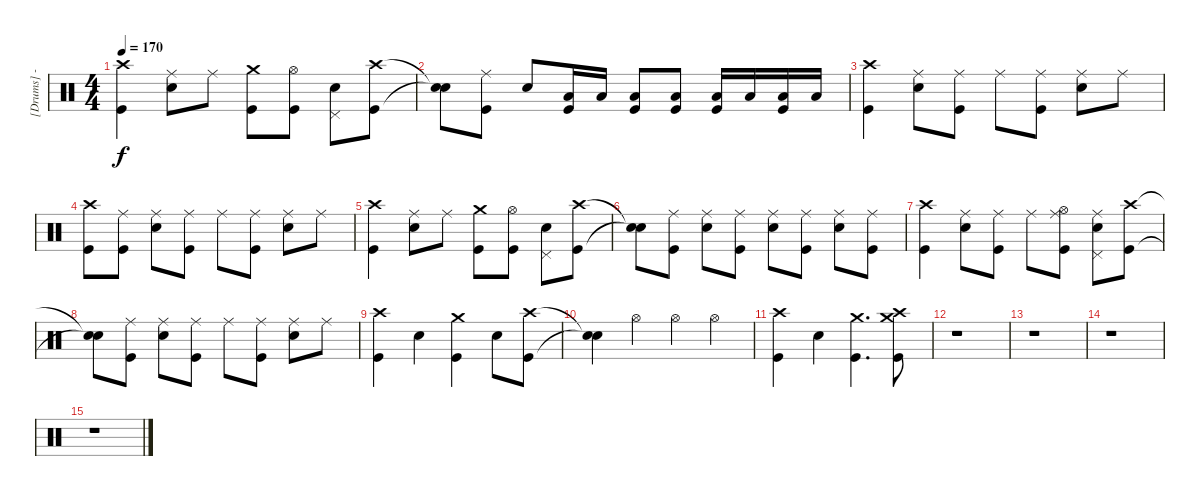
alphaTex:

\track ("[Drums] - Trè Cool" "[Drums] - ") {instrument percussion}
\staff {score}
\articulation defaults
\ts (4 4)
\tempo 170
\clef neutral
\ks c
("Kick (hit)" "Crash high (hit)").4{dy f} ("Snare (hit) 2" "Ride (middle)").8 "Ride (middle)".8 ("Kick (hit)" "Crash medium (hit)").8 ("Kick (hit)" "Hi-Hat (open)").8 ("Snare (hit) 2" "Pedal Hi-Hat (hit)").8 ("Kick (hit)" "Crash high (hit)").8 |
("Snare (hit)"{t} "Snare (hit)"{t}).8 ("Kick (hit)" "Ride (middle)").8 "Snare (hit) 2".8 ("Low Tom (hit)" "Kick (hit)").16 "Low Tom (hit)".16 ("Low Tom (hit)" "Kick (hit)").8 ("Low Tom (hit)" "Kick (hit)").8 ("Low Floor Tom (hit)" "Kick (hit)").16 "Low Floor Tom (hit)".16 ("Low Floor Tom (hit)" "Kick (hit)").16 "Low Floor Tom (hit)".16 |
("Kick (hit)" "Crash high (hit)").4 ("Snare (hit) 2" "Ride (middle)").8 ("Kick (hit)" "Ride (middle)").8 "Ride (middle)".8 ("Kick (hit)" "Ride (middle)").8 ("Snare (hit) 2" "Ride (middle)").8 "Ride (middle)".8 |
("Kick (hit)" "Crash high (hit)").8 ("Kick (hit)" "Ride (middle)").8 ("Snare (hit) 2" "Ride (middle)").8 ("Kick (hit)" "Ride (middle)").8 "Ride (middle)".8 ("Kick (hit)" "Ride (middle)").8 ("Snare (hit) 2" "Ride (middle)").8 "Ride (middle)".8 |
("Kick (hit)" "Crash high (hit)").4 ("Snare (hit) 2" "Ride (middle)").8 "Ride (middle)".8 ("Kick (hit)" "Crash medium (hit)").8 ("Kick (hit)" "Hi-Hat (open)").8 ("Snare (hit) 2" "Pedal Hi-Hat (hit)").8 ("Kick (hit)" "Crash high (hit)").8 |
("Snare (hit)"{t} "Snare (hit)"{t}).8 ("Kick (hit)" "Ride (middle)").8 ("Snare (hit) 2" "Ride (middle)").8 ("Kick (hit)" "Ride (middle)").8 ("Snare (hit) 2" "Ride (middle)").8 ("Kick (hit)" "Ride (middle)").8 ("Snare (hit) 2" "Ride (middle)").8 ("Kick (hit)" "Ride (middle)").8 |
("Kick (hit)" "Crash high (hit)").4 ("Snare (hit) 2" "Ride (middle)").8 ("Kick (hit)" "Ride (middle)").8 "Ride (middle)".8 ("Kick (hit)" "Ride (middle)" "Hi-Hat (open)").8 ("Snare (hit) 2" "Ride (middle)" "Pedal Hi-Hat (hit)").8 ("Kick (hit)" "Crash high (hit)").8 |
("Snare (hit)"{t} "Snare (hit)"{t}).8 ("Kick (hit)" "Ride (middle)").8 ("Snare (hit) 2" "Ride (middle)").8 ("Kick (hit)" "Ride (middle)").8 "Ride (middle)".8 ("Kick (hit)" "Ride (middle)").8 ("Snare (hit) 2" "Ride (middle)").8 "Ride (middle)".8 |
("Kick (hit)" "Crash high (hit)").4 "Snare (hit) 2".4 ("Kick (hit)" "Crash medium (hit)").4 "Snare (hit) 2".8 ("Kick (hit)" "Crash high (hit)").8 |
("Snare (hit)"{t} "Snare (hit)"{t}).4 "Hi-Hat (open)".4 "Hi-Hat (open)".4 "Hi-Hat (open)".4 |
("Kick (hit)" "Crash high (hit)").4 "Snare (hit) 2".4 ("Kick (hit)" "Crash medium (hit)").4{d} ("Kick (hit)" "Crash high (hit)" "Crash medium (hit)").8 |
r.1 |
r.1 |
r.1 |
r.1
